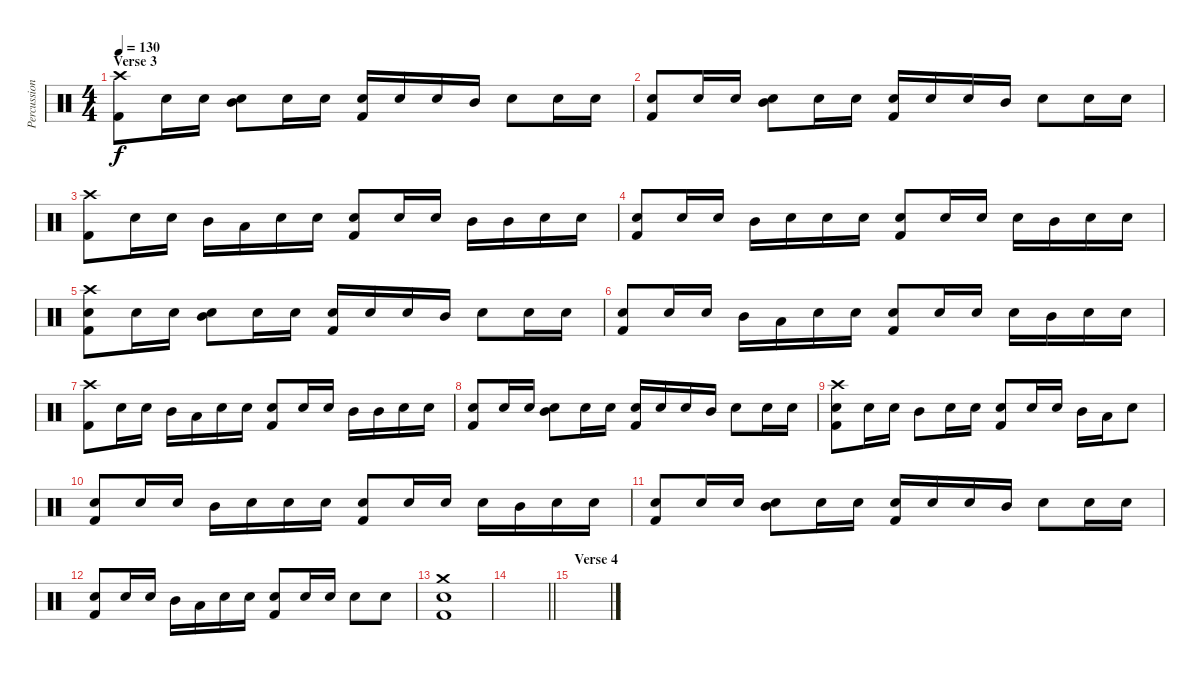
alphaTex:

\track ("Percussion" "Percussion") {instrument percussion}
\staff {score}
\articulation defaults
\ts (4 4)
\section ("" "Verse 3")
\tempo 130
\clef neutral
\ks c
("Crash high (hit)" "Kick (hit) 2").8{dy f} "Snare (hit) 2".16 "Snare (hit) 2".16 ("Mid Tom (hit)" "Snare (hit) 2").8 "Snare (hit) 2".16 "Snare (hit) 2".16 ("Snare (hit) 2" "Kick (hit) 2").16 "Snare (hit) 2".16 "Snare (hit) 2".16 "Mid Tom (hit)".16 "Snare (hit) 2".8 "Snare (hit) 2".16 "Snare (hit) 2".16 |
("Snare (hit) 2" "Kick (hit) 2").8 "Snare (hit) 2".16 "Snare (hit) 2".16 ("Mid Tom (hit)" "Snare (hit) 2").8 "Snare (hit) 2".16 "Snare (hit) 2".16 ("Snare (hit) 2" "Kick (hit) 2").16 "Snare (hit) 2".16 "Snare (hit) 2".16 "Mid Tom (hit)".16 "Snare (hit) 2".8 "Snare (hit) 2".16 "Snare (hit) 2".16 |
("Crash high (hit)" "Kick (hit) 2").8 "Snare (hit) 2".16 "Snare (hit) 2".16 "Mid Tom (hit)".16 "Low Tom (hit)".16 "Snare (hit) 2".16 "Snare (hit) 2".16 ("Snare (hit) 2" "Kick (hit) 2").8 "Snare (hit) 2".16 "Snare (hit) 2".16 "Mid Tom (hit)".16 "Mid Tom (hit)".16 "Snare (hit) 2".16 "Snare (hit) 2".16 |
("Snare (hit) 2" "Kick (hit) 2").8 "Snare (hit) 2".16 "Snare (hit) 2".16 "Mid Tom (hit)".16 "Snare (hit) 2".16 "Snare (hit) 2".16 "Snare (hit) 2".16 ("Snare (hit) 2" "Kick (hit) 2").8 "Snare (hit) 2".16 "Snare (hit) 2".16 "Snare (hit) 2".16 "Mid Tom (hit)".16 "Snare (hit) 2".16 "Snare (hit) 2".16 |
("Crash high (hit)" "Snare (hit) 2" "Kick (hit) 2").8 "Snare (hit) 2".16 "Snare (hit) 2".16 ("Mid Tom (hit)" "Snare (hit) 2").8 "Snare (hit) 2".16 "Snare (hit) 2".16 ("Snare (hit) 2" "Kick (hit) 2").16 "Snare (hit) 2".16 "Snare (hit) 2".16 "Mid Tom (hit)".16 "Snare (hit) 2".8 "Snare (hit) 2".16 "Snare (hit) 2".16 |
("Snare (hit) 2" "Kick (hit) 2").8 "Snare (hit) 2".16 "Snare (hit) 2".16 "Mid Tom (hit)".16 "Low Tom (hit)".16 "Snare (hit) 2".16 "Snare (hit) 2".16 ("Snare (hit) 2" "Kick (hit) 2").8 "Snare (hit) 2".16 "Snare (hit) 2".16 "Snare (hit) 2".16 "Mid Tom (hit)".16 "Snare (hit) 2".16 "Snare (hit) 2".16 |
("Crash high (hit)" "Kick (hit) 2").8 "Snare (hit) 2".16 "Snare (hit) 2".16 "Mid Tom (hit)".16 "Low Tom (hit)".16 "Snare (hit) 2".16 "Snare (hit) 2".16 ("Snare (hit) 2" "Kick (hit) 2").8 "Snare (hit) 2".16 "Snare (hit) 2".16 "Mid Tom (hit)".16 "Mid Tom (hit)".16 "Snare (hit) 2".16 "Snare (hit) 2".16 |
("Snare (hit) 2" "Kick (hit) 2").8 "Snare (hit) 2".16 "Snare (hit) 2".16 ("Mid Tom (hit)" "Snare (hit) 2").8 "Snare (hit) 2".16 "Snare (hit) 2".16 ("Snare (hit) 2" "Kick (hit) 2").16 "Snare (hit) 2".16 "Snare (hit) 2".16 "Mid Tom (hit)".16 "Snare (hit) 2".8 "Snare (hit) 2".16 "Snare (hit) 2".16 |
("Crash high (hit)" "Snare (hit) 2" "Kick (hit) 2").8 "Snare (hit) 2".16 "Snare (hit) 2".16 "Mid Tom (hit)".8 "Snare (hit) 2".16 "Snare (hit) 2".16 ("Snare (hit) 2" "Kick (hit) 2").8 "Snare (hit) 2".16 "Snare (hit) 2".16 "Mid Tom (hit)".16 "Low Tom (hit)".16 "Snare (hit) 2".8 |
("Snare (hit) 2" "Kick (hit) 2").8 "Snare (hit) 2".16 "Snare (hit) 2".16 "Mid Tom (hit)".16 "Snare (hit) 2".16 "Snare (hit) 2".16 "Snare (hit) 2".16 ("Snare (hit) 2" "Kick (hit) 2").8 "Snare (hit) 2".16 "Snare (hit) 2".16 "Snare (hit) 2".16 "Mid Tom (hit)".16 "Snare (hit) 2".16 "Snare (hit) 2".16 |
("Snare (hit) 2" "Kick (hit) 2").8 "Snare (hit) 2".16 "Snare (hit) 2".16 ("Mid Tom (hit)" "Snare (hit) 2").8 "Snare (hit) 2".16 "Snare (hit) 2".16 ("Snare (hit) 2" "Kick (hit) 2").16 "Snare (hit) 2".16 "Snare (hit) 2".16 "Mid Tom (hit)".16 "Snare (hit) 2".8 "Snare (hit) 2".16 "Snare (hit) 2".16 |
("Snare (hit) 2" "Kick (hit) 2").8 "Snare (hit) 2".16 "Snare (hit) 2".16 "Mid Tom (hit)".16 "Low Tom (hit)".16 "Snare (hit) 2".16 "Snare (hit) 2".16 ("Snare (hit) 2" "Kick (hit) 2").8 "Snare (hit) 2".16 "Snare (hit) 2".16 "Snare (hit) 2".8 "Snare (hit) 2".8 |
("Crash medium (hit)" "Snare (hit) 2" "Kick (hit) 2").1 |
\barLineRight lightlight
|
\section ("" "Verse 4")
